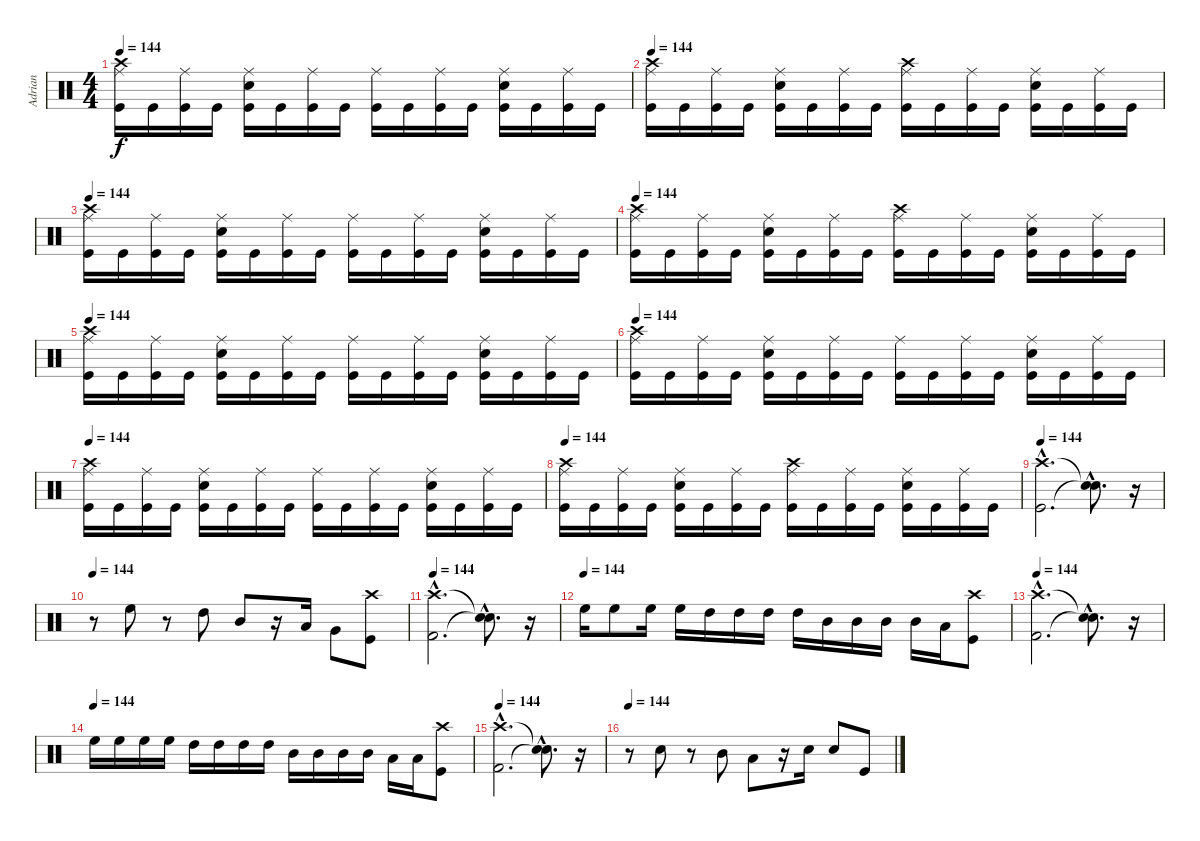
\track ("Adrian" "Adrian") {instrument percussion}
\staff {score}
\articulation defaults
\ts (4 4)
\tempo 144
\clef neutral
\ks c
("Kick (hit)" "Ride (middle)" "Crash high (hit)").16{dy f} "Kick (hit)".16 ("Kick (hit)" "Ride (middle)").16 "Kick (hit)".16 ("Kick (hit)" "Snare (hit) 2" "Ride (middle)").16 "Kick (hit)".16 ("Kick (hit)" "Ride (middle)").16 "Kick (hit)".16 ("Kick (hit)" "Ride (middle)").16 "Kick (hit)".16 ("Kick (hit)" "Ride (middle)").16 "Kick (hit)".16 ("Kick (hit)" "Snare (hit) 2" "Ride (middle)").16 "Kick (hit)".16 ("Kick (hit)" "Ride (middle)").16 "Kick (hit)".16 |
\tempo 144
("Kick (hit)" "Ride (middle)" "Crash high (hit)").16 "Kick (hit)".16 ("Kick (hit)" "Ride (middle)").16 "Kick (hit)".16 ("Kick (hit)" "Snare (hit) 2" "Ride (middle)").16 "Kick (hit)".16 ("Kick (hit)" "Ride (middle)").16 "Kick (hit)".16 ("Kick (hit)" "Ride (middle)" "Crash high (hit)").16 "Kick (hit)".16 ("Kick (hit)" "Ride (middle)").16 "Kick (hit)".16 ("Kick (hit)" "Snare (hit) 2" "Ride (middle)").16 "Kick (hit)".16 ("Kick (hit)" "Ride (middle)").16 "Kick (hit)".16 |
\tempo 144
("Kick (hit)" "Ride (middle)" "Crash high (hit)").16 "Kick (hit)".16 ("Kick (hit)" "Ride (middle)").16 "Kick (hit)".16 ("Kick (hit)" "Snare (hit) 2" "Ride (middle)").16 "Kick (hit)".16 ("Kick (hit)" "Ride (middle)").16 "Kick (hit)".16 ("Kick (hit)" "Ride (middle)").16 "Kick (hit)".16 ("Kick (hit)" "Ride (middle)").16 "Kick (hit)".16 ("Kick (hit)" "Snare (hit) 2" "Ride (middle)").16 "Kick (hit)".16 ("Kick (hit)" "Ride (middle)").16 "Kick (hit)".16 |
\tempo 144
("Kick (hit)" "Ride (middle)" "Crash high (hit)").16 "Kick (hit)".16 ("Kick (hit)" "Ride (middle)").16 "Kick (hit)".16 ("Kick (hit)" "Snare (hit) 2" "Ride (middle)").16 "Kick (hit)".16 ("Kick (hit)" "Ride (middle)").16 "Kick (hit)".16 ("Kick (hit)" "Ride (middle)" "Crash high (hit)").16 "Kick (hit)".16 ("Kick (hit)" "Ride (middle)").16 "Kick (hit)".16 ("Kick (hit)" "Snare (hit) 2" "Ride (middle)").16 "Kick (hit)".16 ("Kick (hit)" "Ride (middle)").16 "Kick (hit)".16 |
\tempo 144
("Kick (hit)" "Ride (middle)" "Crash high (hit)").16 "Kick (hit)".16 ("Kick (hit)" "Ride (middle)").16 "Kick (hit)".16 ("Kick (hit)" "Snare (hit) 2" "Ride (middle)").16 "Kick (hit)".16 ("Kick (hit)" "Ride (middle)").16 "Kick (hit)".16 ("Kick (hit)" "Ride (middle)").16 "Kick (hit)".16 ("Kick (hit)" "Ride (middle)").16 "Kick (hit)".16 ("Kick (hit)" "Snare (hit) 2" "Ride (middle)").16 "Kick (hit)".16 ("Kick (hit)" "Ride (middle)").16 "Kick (hit)".16 |
\tempo 144
("Kick (hit)" "Ride (middle)" "Crash high (hit)").16 "Kick (hit)".16 ("Kick (hit)" "Ride (middle)").16 "Kick (hit)".16 ("Kick (hit)" "Snare (hit) 2" "Ride (middle)").16 "Kick (hit)".16 ("Kick (hit)" "Ride (middle)").16 "Kick (hit)".16 ("Kick (hit)" "Ride (middle)").16 "Kick (hit)".16 ("Kick (hit)" "Ride (middle)").16 "Kick (hit)".16 ("Kick (hit)" "Snare (hit) 2" "Ride (middle)").16 "Kick (hit)".16 ("Kick (hit)" "Ride (middle)").16 "Kick (hit)".16 |
\tempo 144
("Kick (hit)" "Ride (middle)" "Crash high (hit)").16 "Kick (hit)".16 ("Kick (hit)" "Ride (middle)").16 "Kick (hit)".16 ("Kick (hit)" "Snare (hit) 2" "Ride (middle)").16 "Kick (hit)".16 ("Kick (hit)" "Ride (middle)").16 "Kick (hit)".16 ("Kick (hit)" "Ride (middle)").16 "Kick (hit)".16 ("Kick (hit)" "Ride (middle)").16 "Kick (hit)".16 ("Kick (hit)" "Snare (hit) 2" "Ride (middle)").16 "Kick (hit)".16 ("Kick (hit)" "Ride (middle)").16 "Kick (hit)".16 |
\tempo 144
("Kick (hit)" "Ride (middle)" "Crash high (hit)").16 "Kick (hit)".16 ("Kick (hit)" "Ride (middle)").16 "Kick (hit)".16 ("Kick (hit)" "Snare (hit) 2" "Ride (middle)").16 "Kick (hit)".16 ("Kick (hit)" "Ride (middle)").16 "Kick (hit)".16 ("Kick (hit)" "Ride (middle)" "Crash high (hit)").16 "Kick (hit)".16 ("Kick (hit)" "Ride (middle)").16 "Kick (hit)".16 ("Kick (hit)" "Snare (hit) 2" "Ride (middle)").16 "Kick (hit)".16 ("Kick (hit)" "Ride (middle)").16 "Kick (hit)".16 |
\tempo 144
("Kick (hit)"{hac} "Crash high (hit)"{hac}).2{d} ("Snare (hit)"{hac t} "Snare (hit)"{hac t}).8{d} r.16 |
\tempo 144
r.8 "High Floor Tom (hit)".8 r.8 "High Tom (hit)".8 "Mid Tom (hit)".8 r.16 "Low Tom (hit)".16 "Very Low Tom (hit)".8 ("Kick (hit)" "Crash high (hit)").8 |
\tempo 144
("Kick (hit) 2"{hac} "Crash high (hit)"{hac}).2{d} ("Snare (hit)"{hac t} "Snare (hit)"{hac t}).8{d} r.16 |
\tempo (144)
"High Floor Tom (hit)".16 "High Floor Tom (hit)".8 "High Floor Tom (hit)".16 "High Floor Tom (hit)".16 "High Tom (hit)".16 "High Tom (hit)".16 "High Tom (hit)".16 "High Tom (hit)".16 "Mid Tom (hit)".16 "Mid Tom (hit)".16 "Mid Tom (hit)".16 "Mid Tom (hit)".16 "Low Tom (hit)".16 ("Kick (hit)" "Crash high (hit)").8 |
\tempo 144
("Kick (hit) 2"{hac} "Crash high (hit)"{hac}).2{d} ("Snare (hit)"{hac t} "Snare (hit)"{hac t}).8{d} r.16 |
\tempo (144)
"High Floor Tom (hit)".16 "High Floor Tom (hit)".16 "High Floor Tom (hit)".16 "High Floor Tom (hit)".16 "High Tom (hit)".16 "High Tom (hit)".16 "High Tom (hit)".16 "High Tom (hit)".16 "Mid Tom (hit)".16 "Mid Tom (hit)".16 "Mid Tom (hit)".16 "Mid Tom (hit)".16 "Low Tom (hit)".16 "Low Tom (hit)".16 ("Kick (hit)" "Crash high (hit)").8 |
\tempo 144
("Kick (hit) 2"{hac} "Crash high (hit)"{hac}).2{d} ("Snare (hit)"{hac t} "Snare (hit)"{hac t}).8{d} r.16 |
\tempo 144
r.8 "Snare (hit) 2".8 r.8 "Mid Tom (hit)".8 "Low Tom (hit)".8 r.16 "Snare (hit) 2".16 "Snare (hit) 2".8 "Kick (hit)".8
